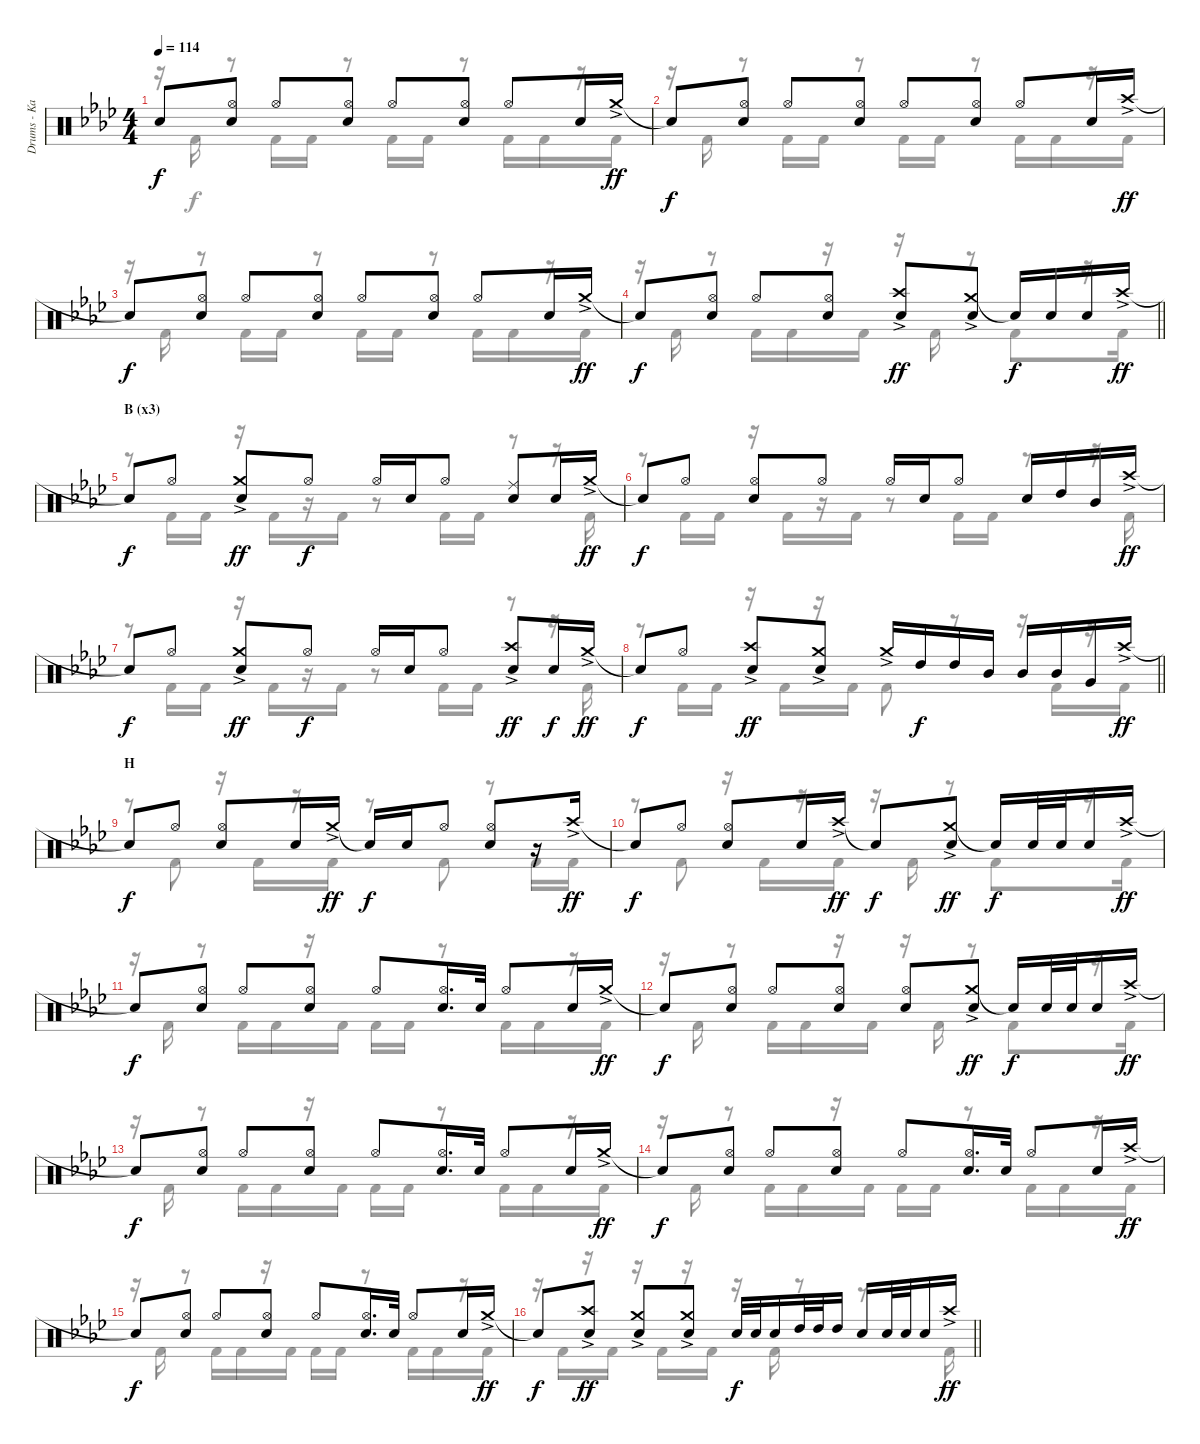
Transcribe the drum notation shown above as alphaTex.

\track ("Drums - Kai" "Drums - Ka") {instrument percussion}
\staff {score}
\articulation defaults
\voice
\ts (4 4)
\tempo 114
\clef neutral
\ks ab "Snare (hit)"{t}.8{dy f}
("Hi-Hat (open)" "Snare (hit) 2").8 "Hi-Hat (open)".8 ("Hi-Hat (open)" "Snare (hit) 2").8 "Hi-Hat (open)".8 ("Hi-Hat (open)" "Snare (hit) 2").8 "Hi-Hat (open)".8 "Snare (hit) 2".16 "Crash medium (hit)"{ac}.16{dy ff} |
"Snare (hit)"{t}.8{dy f} ("Hi-Hat (open)" "Snare (hit) 2").8 "Hi-Hat (open)".8 ("Hi-Hat (open)" "Snare (hit) 2").8 "Hi-Hat (open)".8 ("Hi-Hat (open)" "Snare (hit) 2").8 "Hi-Hat (open)".8 "Snare (hit) 2".16 "Crash high (hit)"{ac}.16{dy ff} |
"Snare (hit)"{t}.8{dy f} ("Hi-Hat (open)" "Snare (hit) 2").8 "Hi-Hat (open)".8 ("Hi-Hat (open)" "Snare (hit) 2").8 "Hi-Hat (open)".8 ("Hi-Hat (open)" "Snare (hit) 2").8 "Hi-Hat (open)".8 "Snare (hit) 2".16 "Crash medium (hit)"{ac}.16{dy ff} |
\barLineRight lightlight "Snare (hit)"{t}.8{dy f}
("Hi-Hat (open)" "Snare (hit) 2").8 "Hi-Hat (open)".8 ("Hi-Hat (open)" "Snare (hit) 2").8 ("Crash high (hit)"{ac} "Snare (hit) 2").8{dy ff} ("Crash medium (hit)"{ac} "Snare (hit) 2").8 "Snare (hit)"{t}.16{dy f} "Snare (hit) 2".16 "Snare (hit) 2".16 "Crash high (hit)"{ac}.16{dy ff} |
\section ("" "B (x3)")
"Snare (hit)"{t}.8{dy f} "Hi-Hat (open)".8 ("Crash medium (hit)"{ac} "Snare (hit) 2").8{dy ff} "Hi-Hat (open)".8{dy f} "Hi-Hat (open)".16 "Snare (hit) 2".16 "Hi-Hat (open)".8 ("Ride (middle)" "Snare (hit) 2").8 "Snare (hit) 2".16 "Crash medium (hit)"{ac}.16{dy ff} |
"Snare (hit)"{t}.8{dy f} "Hi-Hat (open)".8 ("Hi-Hat (open)" "Snare (hit) 2").8 "Hi-Hat (open)".8 "Hi-Hat (open)".16 "Snare (hit) 2".16 "Hi-Hat (open)".8 "Snare (hit) 2".16 "High Tom (hit)".16 "Mid Tom (hit)".16 "Crash high (hit)"{ac}.16{dy ff} |
"Snare (hit)"{t}.8{dy f} "Hi-Hat (open)".8 ("Crash medium (hit)"{ac} "Snare (hit) 2").8{dy ff} "Hi-Hat (open)".8{dy f} "Hi-Hat (open)".16 "Snare (hit) 2".16 "Hi-Hat (open)".8 ("Crash high (hit)"{ac} "Snare (hit) 2").8{dy ff} "Snare (hit) 2".16{dy f} "Crash medium (hit)"{ac}.16{dy ff} |
\barLineRight lightlight "Snare (hit)"{t}.8{dy f} "Hi-Hat (open)".8
("Crash high (hit)"{ac} "Snare (hit) 2").8{dy ff} ("Crash medium (hit)"{ac} "Snare (hit) 2").8 "Crash medium (hit)"{ac}.16 "High Tom (hit)".16{dy f} "High Tom (hit)".16 "Mid Tom (hit)".16 "Mid Tom (hit)".16 "Mid Tom (hit)".16 "Very Low Tom (hit)".16 "Crash high (hit)"{ac}.16{dy ff} |
\section ("" "H")
"Snare (hit)"{t}.8{dy f} "Hi-Hat (open)".8 ("Hi-Hat (open)" "Snare (hit) 2").8 "Snare (hit) 2".16 "Crash medium (hit)"{ac}.16{dy ff} "Snare (hit)"{t}.16{dy f} "Snare (hit) 2".16 "Hi-Hat (open)".8 ("Hi-Hat (open)" "Snare (hit) 2").8 r.16 "Crash high (hit)"{ac}.16{dy ff} |
"Snare (hit)"{t}.8{dy f} "Hi-Hat (open)".8 ("Hi-Hat (open)" "Snare (hit) 2").8 "Snare (hit) 2".16 "Crash high (hit)"{ac}.16{dy ff} "Snare (hit)"{t}.8{dy f} ("Crash medium (hit)"{ac} "Snare (hit) 2").8{dy ff} "Snare (hit)"{t}.16{dy f} "Snare (hit) 2".32 "Snare (hit) 2".32 "Snare (hit) 2".16 "Crash high (hit)"{ac}.16{dy ff} |
"Snare (hit)"{t}.8{dy f} ("Hi-Hat (open)" "Snare (hit) 2").8 "Hi-Hat (open)".8 ("Hi-Hat (open)" "Snare (hit) 2").8 "Hi-Hat (open)".8 ("Hi-Hat (open)" "Snare (hit) 2").16{d} "Snare (hit) 2".32 "Hi-Hat (open)".8 "Snare (hit) 2".16 "Crash medium (hit)"{ac}.16{dy ff} |
"Snare (hit)"{t}.8{dy f} ("Hi-Hat (open)" "Snare (hit) 2").8 "Hi-Hat (open)".8 ("Hi-Hat (open)" "Snare (hit) 2").8 ("Hi-Hat (open)" "Snare (hit) 2").8 ("Crash medium (hit)"{ac} "Snare (hit) 2").8{dy ff} "Snare (hit)"{t}.16{dy f} "Snare (hit) 2".32 "Snare (hit) 2".32 "Snare (hit) 2".16 "Crash high (hit)"{ac}.16{dy ff} |
"Snare (hit)"{t}.8{dy f} ("Hi-Hat (open)" "Snare (hit) 2").8 "Hi-Hat (open)".8 ("Hi-Hat (open)" "Snare (hit) 2").8 "Hi-Hat (open)".8 ("Hi-Hat (open)" "Snare (hit) 2").16{d} "Snare (hit) 2".32 "Hi-Hat (open)".8 "Snare (hit) 2".16 "Crash medium (hit)"{ac}.16{dy ff} |
"Snare (hit)"{t}.8{dy f} ("Hi-Hat (open)" "Snare (hit) 2").8 "Hi-Hat (open)".8 ("Hi-Hat (open)" "Snare (hit) 2").8 "Hi-Hat (open)".8 ("Hi-Hat (open)" "Snare (hit) 2").16{d} "Snare (hit) 2".32 "Hi-Hat (open)".8 "Snare (hit) 2".16 "Crash high (hit)"{ac}.16{dy ff} |
"Snare (hit)"{t}.8{dy f} ("Hi-Hat (open)" "Snare (hit) 2").8 "Hi-Hat (open)".8 ("Hi-Hat (open)" "Snare (hit) 2").8 "Hi-Hat (open)".8 ("Hi-Hat (open)" "Snare (hit) 2").16{d} "Snare (hit) 2".32 "Hi-Hat (open)".8 "Snare (hit) 2".16 "Crash medium (hit)"{ac}.16{dy ff} |
\barLineRight lightlight "Snare (hit)"{t}.8{dy f}
("Crash high (hit)"{ac} "Snare (hit) 2").8{dy ff} ("Crash medium (hit)"{ac} "Snare (hit) 2").8 ("Crash medium (hit)"{ac} "Snare (hit) 2").8 "Snare (hit) 2".32{dy f} "Snare (hit) 2".32 "Snare (hit) 2".16 "High Tom (hit)".32 "High Tom (hit)".32 "High Tom (hit)".16 "Snare (hit) 2".16 "Snare (hit) 2".32 "Snare (hit) 2".32 "Snare (hit) 2".16 "Crash high (hit)"{ac}.16{dy ff}
\voice
\clef neutral
\ottava regular
\simile none
\ks ab
r.16{dy f} "Kick (hit) 2".16 r.8 "Kick (hit) 2".16 "Kick (hit) 2".16 r.8 "Kick (hit) 2".16 "Kick (hit) 2".16 r.8 "Kick (hit) 2".16 "Kick (hit) 2".16 r.16 "Kick (hit) 2".16 |
r.16 "Kick (hit) 2".16 r.8 "Kick (hit) 2".16 "Kick (hit) 2".16 r.8 "Kick (hit) 2".16 "Kick (hit) 2".16 r.8 "Kick (hit) 2".16 "Kick (hit) 2".16 r.16 "Kick (hit) 2".16 |
r.16 "Kick (hit) 2".16 r.8 "Kick (hit) 2".16 "Kick (hit) 2".16 r.8 "Kick (hit) 2".16 "Kick (hit) 2".16 r.8 "Kick (hit) 2".16 "Kick (hit) 2".16 r.16 "Kick (hit) 2".16 |
\barLineRight lightlight
r.16 "Kick (hit) 2".16 r.8 "Kick (hit) 2".16 "Kick (hit) 2".16 r.16 "Kick (hit) 2".16 r.16 "Kick (hit) 2".16 r.8 "Kick (hit) 2".8 r.16 "Kick (hit) 2".16 |
r.8 "Kick (hit) 2".16 "Kick (hit) 2".16 r.16 "Kick (hit) 2".16 r.16 "Kick (hit) 2".16 r.8 "Kick (hit) 2".16 "Kick (hit) 2".16 r.8 r.16 "Kick (hit) 2".16 |
r.8 "Kick (hit) 2".16 "Kick (hit) 2".16 r.16 "Kick (hit) 2".16 r.16 "Kick (hit) 2".16 r.8 "Kick (hit) 2".16 "Kick (hit) 2".16 r.8 r.16 "Kick (hit) 2".16 |
r.8 "Kick (hit) 2".16 "Kick (hit) 2".16 r.16 "Kick (hit) 2".16 r.16 "Kick (hit) 2".16 r.8 "Kick (hit) 2".16 "Kick (hit) 2".16 r.8 r.16 "Kick (hit) 2".16 |
\barLineRight lightlight
r.8 "Kick (hit) 2".16 "Kick (hit) 2".16 r.16 "Kick (hit) 2".16 r.16 "Kick (hit) 2".16 "Kick (hit) 2".8 r.8 r.16 "Kick (hit) 2".16 r.16 "Kick (hit) 2".16 |
r.8 "Kick (hit) 2".8 r.16 "Kick (hit) 2".16 r.16 "Kick (hit) 2".16 r.8 "Kick (hit) 2".8 r.8 "Kick (hit) 2".16 "Kick (hit) 2".16 |
r.8 "Kick (hit) 2".8 r.16 "Kick (hit) 2".16 r.16 "Kick (hit) 2".16 r.16 "Kick (hit) 2".16 r.8 "Kick (hit) 2".8 r.16 "Kick (hit) 2".16 |
r.16 "Kick (hit) 2".16 r.8 "Kick (hit) 2".16 "Kick (hit) 2".16 r.16 "Kick (hit) 2".16 "Kick (hit) 2".16 "Kick (hit) 2".16 r.8 "Kick (hit) 2".16 "Kick (hit) 2".16 r.16 "Kick (hit) 2".16 |
r.16 "Kick (hit) 2".16 r.8 "Kick (hit) 2".16 "Kick (hit) 2".16 r.16 "Kick (hit) 2".16 r.16 "Kick (hit) 2".16 r.8 "Kick (hit) 2".8 r.16 "Kick (hit) 2".16 |
r.16 "Kick (hit) 2".16 r.8 "Kick (hit) 2".16 "Kick (hit) 2".16 r.16 "Kick (hit) 2".16 "Kick (hit) 2".16 "Kick (hit) 2".16 r.8 "Kick (hit) 2".16 "Kick (hit) 2".16 r.16 "Kick (hit) 2".16 |
r.16 "Kick (hit) 2".16 r.8 "Kick (hit) 2".16 "Kick (hit) 2".16 r.16 "Kick (hit) 2".16 "Kick (hit) 2".16 "Kick (hit) 2".16 r.8 "Kick (hit) 2".16 "Kick (hit) 2".16 r.16 "Kick (hit) 2".16 |
r.16 "Kick (hit) 2".16 r.8 "Kick (hit) 2".16 "Kick (hit) 2".16 r.16 "Kick (hit) 2".16 "Kick (hit) 2".16 "Kick (hit) 2".16 r.8 "Kick (hit) 2".16 "Kick (hit) 2".16 r.16 "Kick (hit) 2".16 |
\barLineRight lightlight
r.16 "Kick (hit) 2".16 r.16 "Kick (hit) 2".16 r.16 "Kick (hit) 2".16 r.16 "Kick (hit) 2".16 r.16 "Kick (hit) 2".16 r.8 r.8{d} "Kick (hit) 2".16
